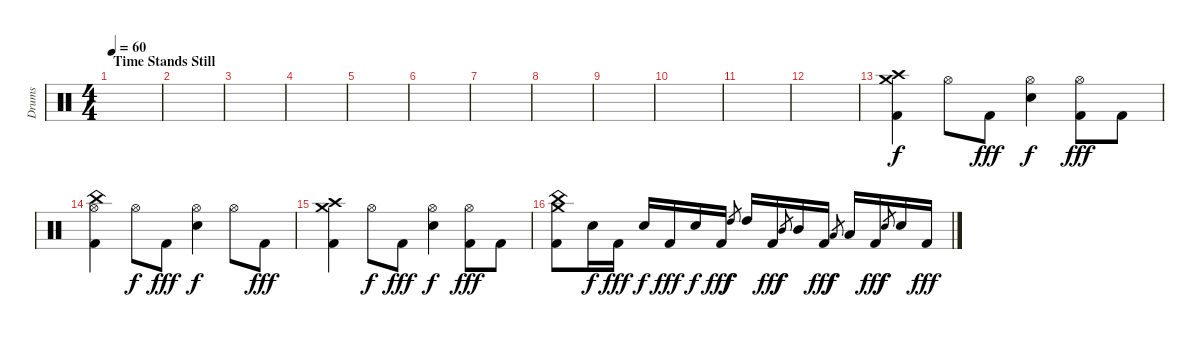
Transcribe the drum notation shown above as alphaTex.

\track ("Drums" "Drums") {instrument percussion}
\staff {score}
\articulation defaults
\ts (4 4)
\section ("" "Time Stands Still")
\tempo 60
\clef neutral
\ks c
|
|
|
|
|
|
|
|
|
|
|
|
("Crash medium (hit)" "Crash high (hit)" "Kick (hit) 2").4 "Hi-Hat (open)".8{dy f} "Kick (hit) 2".8{dy fff} ("Hi-Hat (open)" "Snare (hit) 2").4{dy f} ("Hi-Hat (open)" "Kick (hit) 2").8{dy fff} "Kick (hit) 2".8 |
("China (hit)" "Hi-Hat (open)" "Kick (hit) 2").4 "Hi-Hat (open)".8{dy f} "Kick (hit) 2".8{dy fff} ("Hi-Hat (open)" "Snare (hit) 2").4{dy f} "Hi-Hat (open)".8 "Kick (hit) 2".8{dy fff} |
("Crash medium (hit)" "Crash high (hit)" "Kick (hit) 2").4 "Hi-Hat (open)".8{dy f} "Kick (hit) 2".8{dy fff} ("Hi-Hat (open)" "Snare (hit) 2").4{dy f} ("Hi-Hat (open)" "Kick (hit) 2").8{dy fff} "Kick (hit) 2".8 |
("Crash medium (hit)" "China (hit)" "Kick (hit) 2").8 "Snare (hit) 2".16{dy f} "Kick (hit) 2".16{dy fff} "Snare (hit) 2".16{dy f} "Kick (hit) 2".16{dy fff} "Snare (hit) 2".16{dy f} "Kick (hit) 2".16{dy fff} "High Tom (hit)".8{gr dy f} "High Tom (hit)".16 "Kick (hit) 2".16{dy fff} "Mid Tom (hit)".8{gr dy f} "Mid Tom (hit)".16 "Kick (hit) 2".16{dy fff} "Low Tom (hit)".8{gr dy f} "Low Tom (hit)".16 "Kick (hit) 2".16{dy fff} "Snare (hit) 2".8{gr dy f} "Snare (hit) 2".16 "Kick (hit) 2".16{dy fff}
